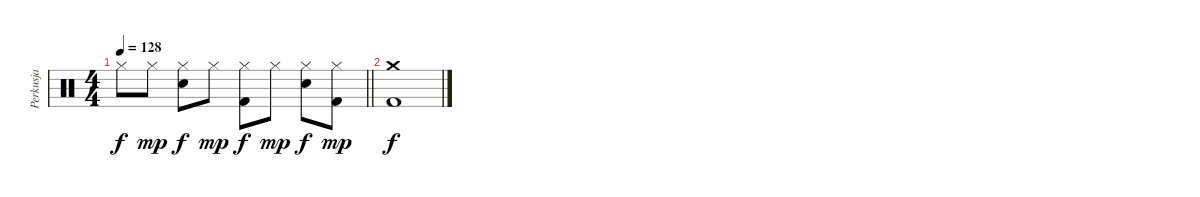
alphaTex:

\track ("Perkusja" "Perkusja") {instrument percussion}
\staff {score}
\articulation defaults
\ts (4 4)
\tempo 128
\clef neutral
\barLineRight lightlight
\ks c "Hi-Hat (closed)".8{dy f} "Hi-Hat (closed)".8{dy mp}
("Hi-Hat (closed)" "Electric Snare (hit)").8{dy f} "Hi-Hat (closed)".8{dy mp} ("Hi-Hat (closed)" "Kick (hit) 2").8{dy f} "Hi-Hat (closed)".8{dy mp} ("Hi-Hat (closed)" "Electric Snare (hit)").8{dy f} ("Hi-Hat (closed)" "Kick (hit) 2").8{dy mp} |
("Crash medium (hit)" "Kick (hit) 2").1{dy f}
